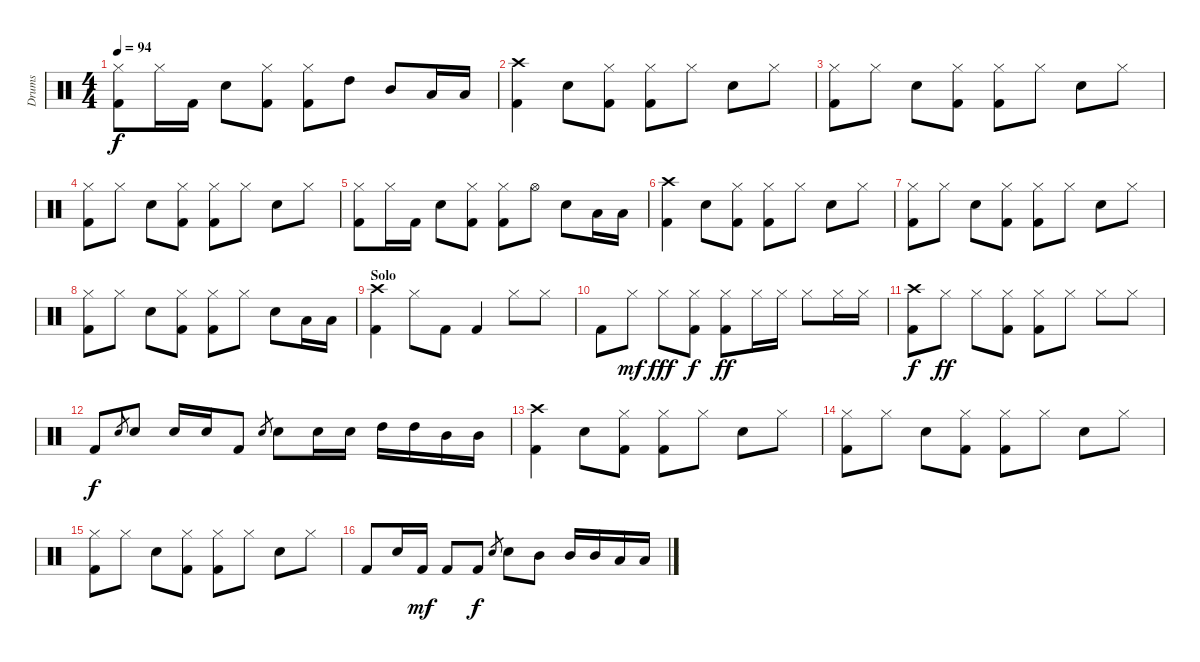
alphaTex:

\track ("Drums" "Drums") {instrument percussion}
\staff {score}
\articulation defaults
\ts (4 4)
\tempo 94
\clef neutral
\ks c
("Hi-Hat (closed)" "Kick (hit) 2").8{dy f} "Hi-Hat (closed)".16 "Kick (hit) 2".16 "Snare (hit) 2".8 ("Hi-Hat (closed)" "Kick (hit) 2").8 ("Hi-Hat (closed)" "Kick (hit) 2").8 "High Tom (hit)".8 "Mid Tom (hit)".8 "Low Tom (hit)".16 "Low Tom (hit)".16 |
("Crash high (hit)" "Kick (hit) 2").4 "Snare (hit) 2".8 ("Hi-Hat (closed)" "Kick (hit) 2").8 ("Hi-Hat (closed)" "Kick (hit) 2").8 "Hi-Hat (closed)".8 "Snare (hit) 2".8 "Hi-Hat (closed)".8 |
("Hi-Hat (closed)" "Kick (hit) 2").8 "Hi-Hat (closed)".8 "Snare (hit) 2".8 ("Hi-Hat (closed)" "Kick (hit) 2").8 ("Hi-Hat (closed)" "Kick (hit) 2").8 "Hi-Hat (closed)".8 "Snare (hit) 2".8 "Hi-Hat (closed)".8 |
("Hi-Hat (closed)" "Kick (hit) 2").8 "Hi-Hat (closed)".8 "Snare (hit) 2".8 ("Hi-Hat (closed)" "Kick (hit) 2").8 ("Hi-Hat (closed)" "Kick (hit) 2").8 "Hi-Hat (closed)".8 "Snare (hit) 2".8 "Hi-Hat (closed)".8 |
("Hi-Hat (closed)" "Kick (hit) 2").8 "Hi-Hat (closed)".16 "Kick (hit) 2".16 "Snare (hit) 2".8 ("Hi-Hat (closed)" "Kick (hit) 2").8 ("Hi-Hat (closed)" "Kick (hit) 2").8 "Hi-Hat (open)".8 "Snare (hit) 2".8 "Low Tom (hit)".16 "Low Tom (hit)".16 |
("Crash high (hit)" "Kick (hit) 2").4 "Snare (hit) 2".8 ("Hi-Hat (closed)" "Kick (hit) 2").8 ("Hi-Hat (closed)" "Kick (hit) 2").8 "Hi-Hat (closed)".8 "Snare (hit) 2".8 "Hi-Hat (closed)".8 |
("Hi-Hat (closed)" "Kick (hit) 2").8 "Hi-Hat (closed)".8 "Snare (hit) 2".8 ("Hi-Hat (closed)" "Kick (hit) 2").8 ("Hi-Hat (closed)" "Kick (hit) 2").8 "Hi-Hat (closed)".8 "Snare (hit) 2".8 "Hi-Hat (closed)".8 |
("Hi-Hat (closed)" "Kick (hit) 2").8 "Hi-Hat (closed)".8 "Snare (hit) 2".8 ("Hi-Hat (closed)" "Kick (hit) 2").8 ("Hi-Hat (closed)" "Kick (hit) 2").8 "Hi-Hat (closed)".8 "Snare (hit) 2".8 "Low Tom (hit)".16 "Low Tom (hit)".16 |
\section ("" "Solo")
("Crash high (hit)" "Kick (hit) 2").4 "Hi-Hat (closed)".8 "Kick (hit) 2".8 "Kick (hit) 2".4 "Hi-Hat (closed)".8 "Hi-Hat (closed)".8 |
"Kick (hit) 2".8 "Hi-Hat (closed)".8{dy mf} "Hi-Hat (closed)".8{dy fff} ("Hi-Hat (closed)" "Kick (hit) 2").8{dy f} ("Hi-Hat (closed)" "Kick (hit) 2").8{dy ff} "Hi-Hat (closed)".16 "Hi-Hat (closed)".16 "Hi-Hat (closed)".8 "Hi-Hat (closed)".16 "Hi-Hat (closed)".16 |
("Crash high (hit)" "Kick (hit) 2").8{dy f} "Hi-Hat (closed)".8{dy ff} "Hi-Hat (closed)".8 ("Hi-Hat (closed)" "Kick (hit) 2").8 ("Hi-Hat (closed)" "Kick (hit) 2").8 "Hi-Hat (closed)".8 "Hi-Hat (closed)".8 "Hi-Hat (closed)".8 |
"Kick (hit) 2".8{dy f} "Snare (hit) 2".8{gr} "Snare (hit) 2".8 "Snare (hit) 2".16 "Snare (hit) 2".16 "Kick (hit) 2".8 "Snare (hit) 2".8{gr} "Snare (hit) 2".8 "Snare (hit) 2".16 "Snare (hit) 2".16 "High Tom (hit)".16 "High Tom (hit)".16 "Mid Tom (hit)".16 "Mid Tom (hit)".16 |
("Crash high (hit)" "Kick (hit) 2").4 "Snare (hit) 2".8 ("Hi-Hat (closed)" "Kick (hit) 2").8 ("Hi-Hat (closed)" "Kick (hit) 2").8 "Hi-Hat (closed)".8 "Snare (hit) 2".8 "Hi-Hat (closed)".8 |
("Hi-Hat (closed)" "Kick (hit) 2").8 "Hi-Hat (closed)".8 "Snare (hit) 2".8 ("Hi-Hat (closed)" "Kick (hit) 2").8 ("Hi-Hat (closed)" "Kick (hit) 2").8 "Hi-Hat (closed)".8 "Snare (hit) 2".8 "Hi-Hat (closed)".8 |
("Hi-Hat (closed)" "Kick (hit) 2").8 "Hi-Hat (closed)".8 "Snare (hit) 2".8 ("Hi-Hat (closed)" "Kick (hit) 2").8 ("Hi-Hat (closed)" "Kick (hit) 2").8 "Hi-Hat (closed)".8 "Snare (hit) 2".8 "Hi-Hat (closed)".8 |
"Kick (hit) 2".8 "Snare (hit) 2".16 "Kick (hit) 2".16{dy mf} "Kick (hit) 2".8 "Kick (hit) 2".8{dy f} "Snare (hit) 2".8{gr} "Snare (hit) 2".8 "Mid Tom (hit)".8 "Mid Tom (hit)".16 "Mid Tom (hit)".16 "Low Tom (hit)".16 "Low Tom (hit)".16
